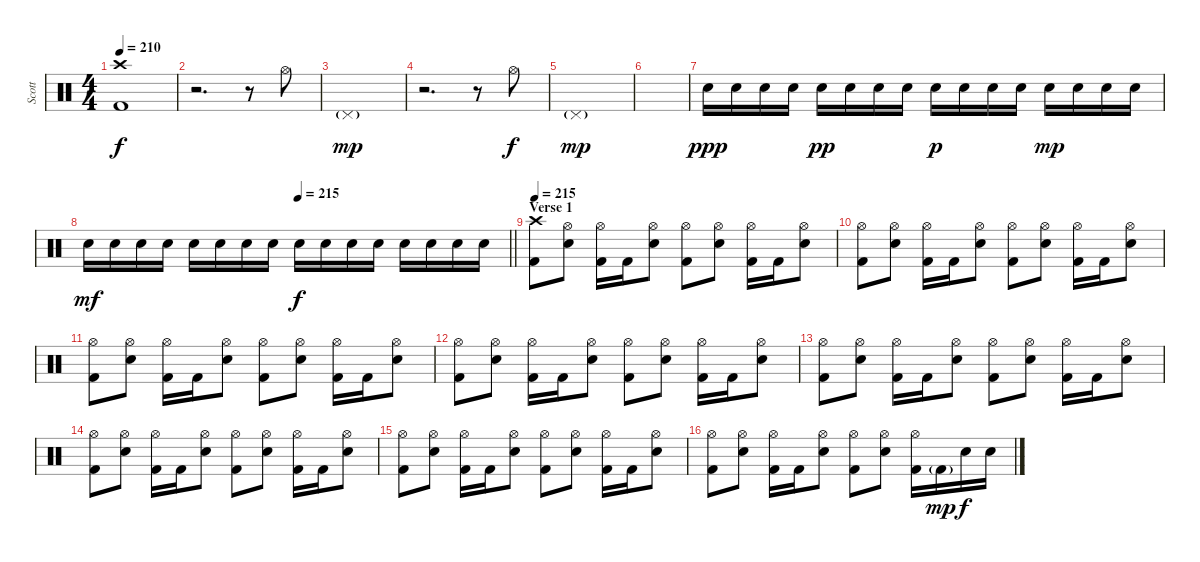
\track ("Scott" "Scott") {instrument percussion}
\staff {score}
\articulation defaults
\ts (4 4)
\section ("" "")
\tempo 210
\clef neutral
\ks c
("Crash high (hit)" "Kick (hit) 2").1{dy f} |
r.2{d} r.8 "Hi-Hat (open)".8 |
"Pedal Hi-Hat (hit)"{g}.1{dy mp} |
r.2{d} r.8 "Hi-Hat (open)".8{dy f} |
"Pedal Hi-Hat (hit)"{g}.1{dy mp} |
|
"Electric Snare (hit)".16{dy ppp} "Electric Snare (hit)".16 "Electric Snare (hit)".16 "Electric Snare (hit)".16 "Electric Snare (hit)".16{dy pp} "Electric Snare (hit)".16 "Electric Snare (hit)".16 "Electric Snare (hit)".16 "Electric Snare (hit)".16{dy p} "Electric Snare (hit)".16 "Electric Snare (hit)".16 "Electric Snare (hit)".16 "Electric Snare (hit)".16{dy mp} "Electric Snare (hit)".16 "Electric Snare (hit)".16 "Electric Snare (hit)".16 |
\tempo (215 0.5)
\barLineRight lightlight "Electric Snare (hit)".16{dy mf} "Electric Snare (hit)".16 "Electric Snare (hit)".16 "Electric Snare (hit)".16 "Electric Snare (hit)".16 "Electric Snare (hit)".16 "Electric Snare (hit)".16 "Electric Snare (hit)".16 "Electric Snare (hit)".16{dy f} "Electric Snare (hit)".16 "Electric Snare (hit)".16 "Electric Snare (hit)".16 "Electric Snare (hit)".16 "Electric Snare (hit)".16 "Electric Snare (hit)".16 "Electric Snare (hit)".16
|
\section ("" "Verse 1")
\tempo 215
("Crash high (hit)" "Kick (hit) 2").8 ("Hi-Hat (open)" "Electric Snare (hit)").8 ("Hi-Hat (open)" "Kick (hit) 2").16 "Kick (hit) 2".16 ("Hi-Hat (open)" "Electric Snare (hit)").8 ("Hi-Hat (open)" "Kick (hit) 2").8 ("Hi-Hat (open)" "Electric Snare (hit)").8 ("Hi-Hat (open)" "Kick (hit) 2").16 "Kick (hit) 2".16 ("Hi-Hat (open)" "Electric Snare (hit)").8 |
("Hi-Hat (open)" "Kick (hit) 2").8 ("Hi-Hat (open)" "Electric Snare (hit)").8 ("Hi-Hat (open)" "Kick (hit) 2").16 "Kick (hit) 2".16 ("Hi-Hat (open)" "Electric Snare (hit)").8 ("Hi-Hat (open)" "Kick (hit) 2").8 ("Hi-Hat (open)" "Electric Snare (hit)").8 ("Hi-Hat (open)" "Kick (hit) 2").16 "Kick (hit) 2".16 ("Hi-Hat (open)" "Electric Snare (hit)").8 |
("Hi-Hat (open)" "Kick (hit) 2").8 ("Hi-Hat (open)" "Electric Snare (hit)").8 ("Hi-Hat (open)" "Kick (hit) 2").16 "Kick (hit) 2".16 ("Hi-Hat (open)" "Electric Snare (hit)").8 ("Hi-Hat (open)" "Kick (hit) 2").8 ("Hi-Hat (open)" "Electric Snare (hit)").8 ("Hi-Hat (open)" "Kick (hit) 2").16 "Kick (hit) 2".16 ("Hi-Hat (open)" "Electric Snare (hit)").8 |
("Hi-Hat (open)" "Kick (hit) 2").8 ("Hi-Hat (open)" "Electric Snare (hit)").8 ("Hi-Hat (open)" "Kick (hit) 2").16 "Kick (hit) 2".16 ("Hi-Hat (open)" "Electric Snare (hit)").8 ("Hi-Hat (open)" "Kick (hit) 2").8 ("Hi-Hat (open)" "Electric Snare (hit)").8 ("Hi-Hat (open)" "Kick (hit) 2").16 "Kick (hit) 2".16 ("Hi-Hat (open)" "Electric Snare (hit)").8 |
("Hi-Hat (open)" "Kick (hit) 2").8 ("Hi-Hat (open)" "Electric Snare (hit)").8 ("Hi-Hat (open)" "Kick (hit) 2").16 "Kick (hit) 2".16 ("Hi-Hat (open)" "Electric Snare (hit)").8 ("Hi-Hat (open)" "Kick (hit) 2").8 ("Hi-Hat (open)" "Electric Snare (hit)").8 ("Hi-Hat (open)" "Kick (hit) 2").16 "Kick (hit) 2".16 ("Hi-Hat (open)" "Electric Snare (hit)").8 |
("Hi-Hat (open)" "Kick (hit) 2").8 ("Hi-Hat (open)" "Electric Snare (hit)").8 ("Hi-Hat (open)" "Kick (hit) 2").16 "Kick (hit) 2".16 ("Hi-Hat (open)" "Electric Snare (hit)").8 ("Hi-Hat (open)" "Kick (hit) 2").8 ("Hi-Hat (open)" "Electric Snare (hit)").8 ("Hi-Hat (open)" "Kick (hit) 2").16 "Kick (hit) 2".16 ("Hi-Hat (open)" "Electric Snare (hit)").8 |
("Hi-Hat (open)" "Kick (hit) 2").8 ("Hi-Hat (open)" "Electric Snare (hit)").8 ("Hi-Hat (open)" "Kick (hit) 2").16 "Kick (hit) 2".16 ("Hi-Hat (open)" "Electric Snare (hit)").8 ("Hi-Hat (open)" "Kick (hit) 2").8 ("Hi-Hat (open)" "Electric Snare (hit)").8 ("Hi-Hat (open)" "Kick (hit) 2").16 "Kick (hit) 2".16 ("Hi-Hat (open)" "Electric Snare (hit)").8 |
("Hi-Hat (open)" "Kick (hit) 2").8 ("Hi-Hat (open)" "Electric Snare (hit)").8 ("Hi-Hat (open)" "Kick (hit) 2").16 "Kick (hit) 2".16 ("Hi-Hat (open)" "Electric Snare (hit)").8 ("Hi-Hat (open)" "Kick (hit) 2").8 ("Hi-Hat (open)" "Electric Snare (hit)").8 ("Hi-Hat (open)" "Kick (hit) 2").16 "Kick (hit) 2"{g}.16{dy mp} "Electric Snare (hit)".16{dy f} "Electric Snare (hit)".16
